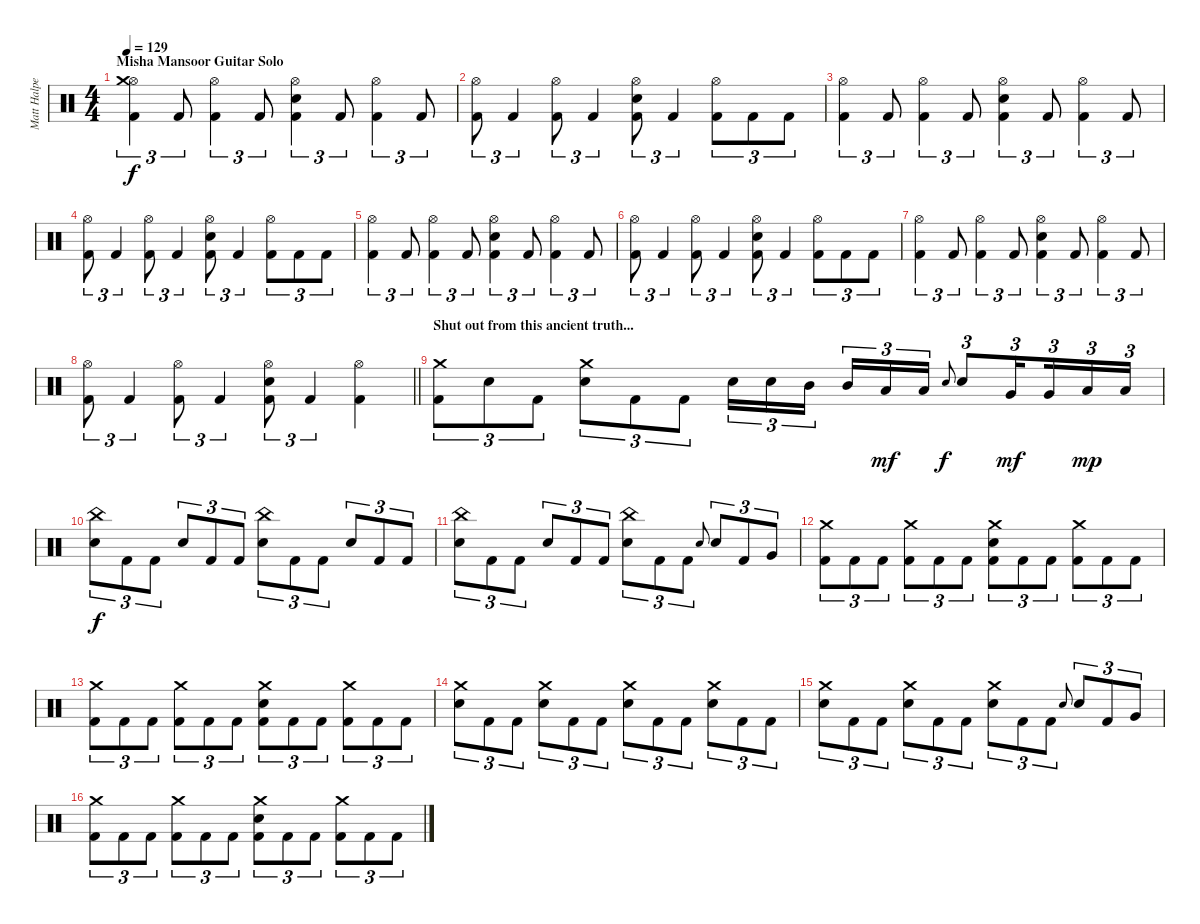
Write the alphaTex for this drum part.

\track ("Matt Halpern - Drums" "Matt Halpe") {instrument percussion}
\staff {score}
\articulation defaults
\ts (4 4)
\section ("" "Misha Mansoor Guitar Solo")
\tempo 129
\clef neutral
\ks c
("Hi-Hat (open)" "Crash medium (hit)" "Kick (hit) 2").4{tu (3 2) dy f} "Kick (hit) 2".8{tu (3 2)} ("Hi-Hat (open)" "Kick (hit) 2").4{tu (3 2)} "Kick (hit) 2".8{tu (3 2)} ("Hi-Hat (open)" "Electric Snare (hit)" "Kick (hit) 2").4{tu (3 2)} "Kick (hit) 2".8{tu (3 2)} ("Hi-Hat (open)" "Kick (hit) 2").4{tu (3 2)} "Kick (hit) 2".8{tu (3 2)} |
("Hi-Hat (open)" "Kick (hit) 2").8{tu (3 2)} "Kick (hit) 2".4{tu (3 2)} ("Hi-Hat (open)" "Kick (hit) 2").8{tu (3 2)} "Kick (hit) 2".4{tu (3 2)} ("Hi-Hat (open)" "Electric Snare (hit)" "Kick (hit) 2").8{tu (3 2)} "Kick (hit) 2".4{tu (3 2)} ("Hi-Hat (open)" "Kick (hit) 2").8{tu (3 2)} "Kick (hit) 2".8{tu (3 2)} "Kick (hit) 2".8{tu (3 2)} |
("Hi-Hat (open)" "Kick (hit) 2").4{tu (3 2)} "Kick (hit) 2".8{tu (3 2)} ("Hi-Hat (open)" "Kick (hit) 2").4{tu (3 2)} "Kick (hit) 2".8{tu (3 2)} ("Hi-Hat (open)" "Electric Snare (hit)" "Kick (hit) 2").4{tu (3 2)} "Kick (hit) 2".8{tu (3 2)} ("Hi-Hat (open)" "Kick (hit) 2").4{tu (3 2)} "Kick (hit) 2".8{tu (3 2)} |
("Hi-Hat (open)" "Kick (hit) 2").8{tu (3 2)} "Kick (hit) 2".4{tu (3 2)} ("Hi-Hat (open)" "Kick (hit) 2").8{tu (3 2)} "Kick (hit) 2".4{tu (3 2)} ("Hi-Hat (open)" "Electric Snare (hit)" "Kick (hit) 2").8{tu (3 2)} "Kick (hit) 2".4{tu (3 2)} ("Hi-Hat (open)" "Kick (hit) 2").8{tu (3 2)} "Kick (hit) 2".8{tu (3 2)} "Kick (hit) 2".8{tu (3 2)} |
("Hi-Hat (open)" "Kick (hit) 2").4{tu (3 2)} "Kick (hit) 2".8{tu (3 2)} ("Hi-Hat (open)" "Kick (hit) 2").4{tu (3 2)} "Kick (hit) 2".8{tu (3 2)} ("Hi-Hat (open)" "Electric Snare (hit)" "Kick (hit) 2").4{tu (3 2)} "Kick (hit) 2".8{tu (3 2)} ("Hi-Hat (open)" "Kick (hit) 2").4{tu (3 2)} "Kick (hit) 2".8{tu (3 2)} |
("Hi-Hat (open)" "Kick (hit) 2").8{tu (3 2)} "Kick (hit) 2".4{tu (3 2)} ("Hi-Hat (open)" "Kick (hit) 2").8{tu (3 2)} "Kick (hit) 2".4{tu (3 2)} ("Hi-Hat (open)" "Electric Snare (hit)" "Kick (hit) 2").8{tu (3 2)} "Kick (hit) 2".4{tu (3 2)} ("Hi-Hat (open)" "Kick (hit) 2").8{tu (3 2)} "Kick (hit) 2".8{tu (3 2)} "Kick (hit) 2".8{tu (3 2)} |
("Hi-Hat (open)" "Kick (hit) 2").4{tu (3 2)} "Kick (hit) 2".8{tu (3 2)} ("Hi-Hat (open)" "Kick (hit) 2").4{tu (3 2)} "Kick (hit) 2".8{tu (3 2)} ("Hi-Hat (open)" "Electric Snare (hit)" "Kick (hit) 2").4{tu (3 2)} "Kick (hit) 2".8{tu (3 2)} ("Hi-Hat (open)" "Kick (hit) 2").4{tu (3 2)} "Kick (hit) 2".8{tu (3 2)} |
\barLineRight lightlight
("Hi-Hat (open)" "Kick (hit) 2").8{tu (3 2)} "Kick (hit) 2".4{tu (3 2)} ("Hi-Hat (open)" "Kick (hit) 2").8{tu (3 2)} "Kick (hit) 2".4{tu (3 2)} ("Hi-Hat (open)" "Electric Snare (hit)" "Kick (hit) 2").8{tu (3 2)} "Kick (hit) 2".4{tu (3 2)} ("Hi-Hat (open)" "Kick (hit) 2").4 |
\section ("" "Shut out from this ancient truth...")
("Crash medium (hit)" "Kick (hit) 2").8{tu (3 2)} "Electric Snare (hit)".8{tu (3 2)} "Kick (hit) 2".8{tu (3 2)} ("Crash medium (hit)" "Electric Snare (hit)").8{tu (3 2)} "Kick (hit) 2".8{tu (3 2)} "Kick (hit) 2".8{tu (3 2)} "Electric Snare (hit)".16{tu (3 2)} "Electric Snare (hit)".16{tu (3 2)} "Mid Tom (hit)".16{tu (3 2) beam splitsecondary} "Mid Tom (hit)".16{tu (3 2)} "Low Tom (hit)".16{tu (3 2) dy mf} "Low Tom (hit)".16{tu (3 2)} "Electric Snare (hit)".8{gr onbeat dy f} "Electric Snare (hit)".8{tu (3 2)} "Very Low Tom (hit)".16{tu (3 2) dy mf beam splitsecondary} "Very Low Tom (hit)".16{tu (3 2)} "Low Floor Tom (hit)".16{tu (3 2) dy mp} "Low Floor Tom (hit)".16{tu (3 2)} |
("China (hit)" "Electric Snare (hit)").8{tu (3 2) dy f} "Kick (hit) 2".8{tu (3 2)} "Kick (hit) 2".8{tu (3 2)} "Electric Snare (hit)".8{tu (3 2)} "Kick (hit) 2".8{tu (3 2)} "Kick (hit) 2".8{tu (3 2)} ("China (hit)" "Electric Snare (hit)").8{tu (3 2)} "Kick (hit) 2".8{tu (3 2)} "Kick (hit) 2".8{tu (3 2)} "Electric Snare (hit)".8{tu (3 2)} "Kick (hit) 2".8{tu (3 2)} "Kick (hit) 2".8{tu (3 2)} |
("China (hit)" "Electric Snare (hit)").8{tu (3 2)} "Kick (hit) 2".8{tu (3 2)} "Kick (hit) 2".8{tu (3 2)} "Electric Snare (hit)".8{tu (3 2)} "Kick (hit) 2".8{tu (3 2)} "Kick (hit) 2".8{tu (3 2)} ("China (hit)" "Electric Snare (hit)").8{tu (3 2)} "Kick (hit) 2".8{tu (3 2)} "Kick (hit) 2".8{tu (3 2)} "Electric Snare (hit)".8{gr onbeat} "Electric Snare (hit)".8{tu (3 2)} "Kick (hit) 2".8{tu (3 2)} "Very Low Tom (hit)".8{tu (3 2)} |
("Crash medium (hit)" "Kick (hit) 2").8{tu (3 2)} "Kick (hit) 2".8{tu (3 2)} "Kick (hit) 2".8{tu (3 2)} ("Crash medium (hit)" "Kick (hit) 2").8{tu (3 2)} "Kick (hit) 2".8{tu (3 2)} "Kick (hit) 2".8{tu (3 2)} ("Crash medium (hit)" "Electric Snare (hit)" "Kick (hit) 2").8{tu (3 2)} "Kick (hit) 2".8{tu (3 2)} "Kick (hit) 2".8{tu (3 2)} ("Crash medium (hit)" "Kick (hit) 2").8{tu (3 2)} "Kick (hit) 2".8{tu (3 2)} "Kick (hit) 2".8{tu (3 2)} |
("Crash medium (hit)" "Kick (hit) 2").8{tu (3 2)} "Kick (hit) 2".8{tu (3 2)} "Kick (hit) 2".8{tu (3 2)} ("Crash medium (hit)" "Kick (hit) 2").8{tu (3 2)} "Kick (hit) 2".8{tu (3 2)} "Kick (hit) 2".8{tu (3 2)} ("Crash medium (hit)" "Electric Snare (hit)" "Kick (hit) 2").8{tu (3 2)} "Kick (hit) 2".8{tu (3 2)} "Kick (hit) 2".8{tu (3 2)} ("Crash medium (hit)" "Kick (hit) 2").8{tu (3 2)} "Kick (hit) 2".8{tu (3 2)} "Kick (hit) 2".8{tu (3 2)} |
("Crash medium (hit)" "Electric Snare (hit)").8{tu (3 2)} "Kick (hit) 2".8{tu (3 2)} "Kick (hit) 2".8{tu (3 2)} ("Crash medium (hit)" "Electric Snare (hit)").8{tu (3 2)} "Kick (hit) 2".8{tu (3 2)} "Kick (hit) 2".8{tu (3 2)} ("Crash medium (hit)" "Electric Snare (hit)").8{tu (3 2)} "Kick (hit) 2".8{tu (3 2)} "Kick (hit) 2".8{tu (3 2)} ("Crash medium (hit)" "Electric Snare (hit)").8{tu (3 2)} "Kick (hit) 2".8{tu (3 2)} "Kick (hit) 2".8{tu (3 2)} |
("Crash medium (hit)" "Electric Snare (hit)").8{tu (3 2)} "Kick (hit) 2".8{tu (3 2)} "Kick (hit) 2".8{tu (3 2)} ("Crash medium (hit)" "Electric Snare (hit)").8{tu (3 2)} "Kick (hit) 2".8{tu (3 2)} "Kick (hit) 2".8{tu (3 2)} ("Crash medium (hit)" "Electric Snare (hit)").8{tu (3 2)} "Kick (hit) 2".8{tu (3 2)} "Kick (hit) 2".8{tu (3 2)} "Electric Snare (hit)".8{gr onbeat} "Electric Snare (hit)".8{tu (3 2)} "Kick (hit) 2".8{tu (3 2)} "Very Low Tom (hit)".8{tu (3 2)} |
("Crash medium (hit)" "Kick (hit) 2").8{tu (3 2)} "Kick (hit) 2".8{tu (3 2)} "Kick (hit) 2".8{tu (3 2)} ("Crash medium (hit)" "Kick (hit) 2").8{tu (3 2)} "Kick (hit) 2".8{tu (3 2)} "Kick (hit) 2".8{tu (3 2)} ("Crash medium (hit)" "Electric Snare (hit)" "Kick (hit) 2").8{tu (3 2)} "Kick (hit) 2".8{tu (3 2)} "Kick (hit) 2".8{tu (3 2)} ("Crash medium (hit)" "Kick (hit) 2").8{tu (3 2)} "Kick (hit) 2".8{tu (3 2)} "Kick (hit) 2".8{tu (3 2)}
